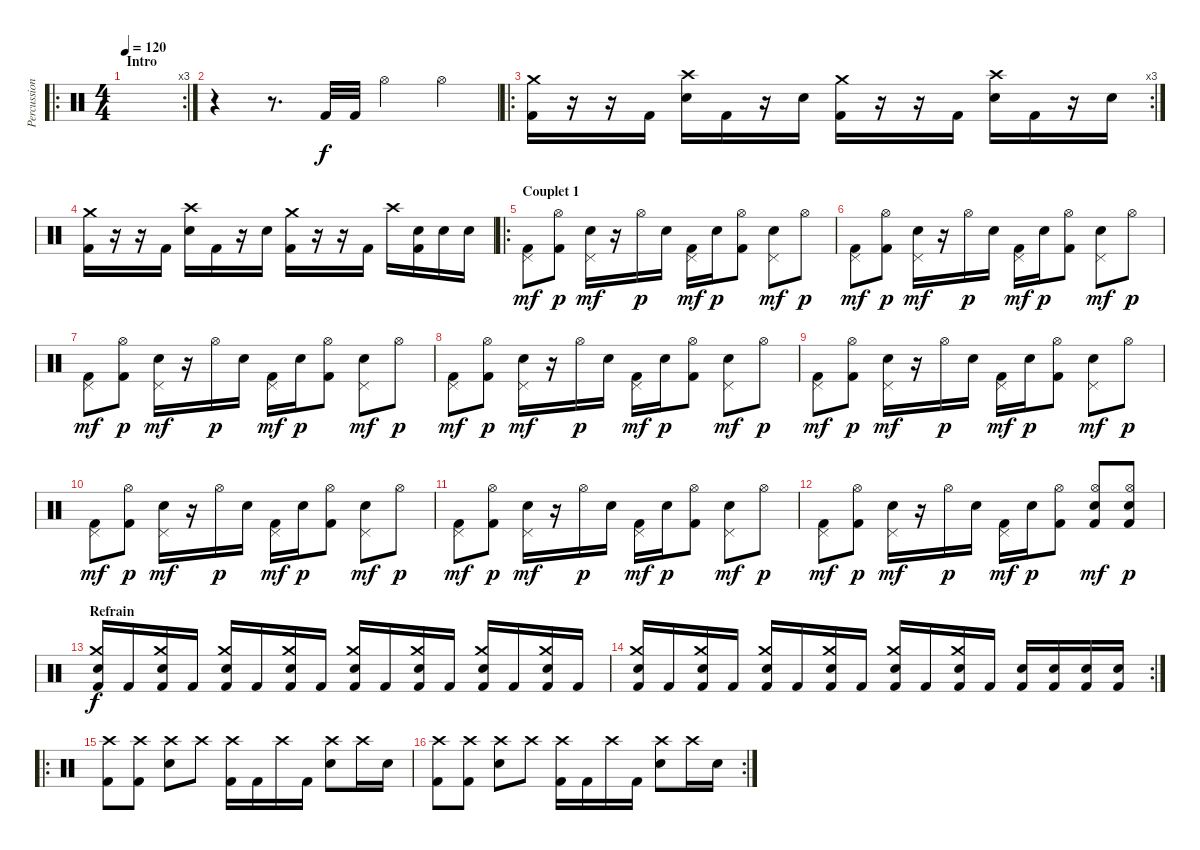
\track ("Percussions" "Percussion") {instrument percussion}
\staff {score}
\articulation defaults
\ro
\rc 3
\ts (4 4)
\section ("" "Intro")
\tempo 120
\clef neutral
\ks c
|
r.4 r.8{d} "Kick (hit) 2".32 "Kick (hit) 2".32 "Hi-Hat (open)".4 "Hi-Hat (open)".4 |
\ro
\rc 3
("Crash medium (hit)" "Kick (hit) 2").16 r.16 r.16 "Kick (hit) 2".16 ("Crash high (hit)" "Electric Snare (hit)").16 "Kick (hit) 2".16 r.16 "Electric Snare (hit)".16 ("Crash medium (hit)" "Kick (hit) 2").16 r.16 r.16 "Kick (hit) 2".16 ("Crash high (hit)" "Electric Snare (hit)").16 "Kick (hit) 2".16 r.16 "Electric Snare (hit)".16 |
("Crash medium (hit)" "Kick (hit) 2").16 r.16 r.16 "Kick (hit) 2".16 ("Crash high (hit)" "Electric Snare (hit)").16 "Kick (hit) 2".16 r.16 "Electric Snare (hit)".16 ("Crash medium (hit)" "Kick (hit) 2").16 r.16 r.16 "Kick (hit) 2".16 "Crash high (hit)".16 ("Electric Snare (hit)" "Kick (hit) 2").16 "Electric Snare (hit)".16 "Electric Snare (hit)".16 |
\ro
\section ("" "Couplet 1")
("Pedal Hi-Hat (hit)" "Kick (hit) 2").8{dy mf} ("Hi-Hat (open)" "Kick (hit) 2").8{dy p} ("Pedal Hi-Hat (hit)" "Electric Snare (hit)").16{dy mf} r.16 "Hi-Hat (open)".16{dy p} "Electric Snare (hit)".16 ("Pedal Hi-Hat (hit)" "Kick (hit) 2").16{dy mf} "Electric Snare (hit)".16{dy p} ("Hi-Hat (open)" "Kick (hit) 2").8 ("Pedal Hi-Hat (hit)" "Electric Snare (hit)").8{dy mf} "Hi-Hat (open)".8{dy p} |
("Pedal Hi-Hat (hit)" "Kick (hit) 2").8{dy mf} ("Hi-Hat (open)" "Kick (hit) 2").8{dy p} ("Pedal Hi-Hat (hit)" "Electric Snare (hit)").16{dy mf} r.16 "Hi-Hat (open)".16{dy p} "Electric Snare (hit)".16 ("Pedal Hi-Hat (hit)" "Kick (hit) 2").16{dy mf} "Electric Snare (hit)".16{dy p} ("Hi-Hat (open)" "Kick (hit) 2").8 ("Pedal Hi-Hat (hit)" "Electric Snare (hit)").8{dy mf} "Hi-Hat (open)".8{dy p} |
("Pedal Hi-Hat (hit)" "Kick (hit) 2").8{dy mf} ("Hi-Hat (open)" "Kick (hit) 2").8{dy p} ("Pedal Hi-Hat (hit)" "Electric Snare (hit)").16{dy mf} r.16 "Hi-Hat (open)".16{dy p} "Electric Snare (hit)".16 ("Pedal Hi-Hat (hit)" "Kick (hit) 2").16{dy mf} "Electric Snare (hit)".16{dy p} ("Hi-Hat (open)" "Kick (hit) 2").8 ("Pedal Hi-Hat (hit)" "Electric Snare (hit)").8{dy mf} "Hi-Hat (open)".8{dy p} |
("Pedal Hi-Hat (hit)" "Kick (hit) 2").8{dy mf} ("Hi-Hat (open)" "Kick (hit) 2").8{dy p} ("Pedal Hi-Hat (hit)" "Electric Snare (hit)").16{dy mf} r.16 "Hi-Hat (open)".16{dy p} "Electric Snare (hit)".16 ("Pedal Hi-Hat (hit)" "Kick (hit) 2").16{dy mf} "Electric Snare (hit)".16{dy p} ("Hi-Hat (open)" "Kick (hit) 2").8 ("Pedal Hi-Hat (hit)" "Electric Snare (hit)").8{dy mf} "Hi-Hat (open)".8{dy p} |
("Pedal Hi-Hat (hit)" "Kick (hit) 2").8{dy mf} ("Hi-Hat (open)" "Kick (hit) 2").8{dy p} ("Pedal Hi-Hat (hit)" "Electric Snare (hit)").16{dy mf} r.16 "Hi-Hat (open)".16{dy p} "Electric Snare (hit)".16 ("Pedal Hi-Hat (hit)" "Kick (hit) 2").16{dy mf} "Electric Snare (hit)".16{dy p} ("Hi-Hat (open)" "Kick (hit) 2").8 ("Pedal Hi-Hat (hit)" "Electric Snare (hit)").8{dy mf} "Hi-Hat (open)".8{dy p} |
("Pedal Hi-Hat (hit)" "Kick (hit) 2").8{dy mf} ("Hi-Hat (open)" "Kick (hit) 2").8{dy p} ("Pedal Hi-Hat (hit)" "Electric Snare (hit)").16{dy mf} r.16 "Hi-Hat (open)".16{dy p} "Electric Snare (hit)".16 ("Pedal Hi-Hat (hit)" "Kick (hit) 2").16{dy mf} "Electric Snare (hit)".16{dy p} ("Hi-Hat (open)" "Kick (hit) 2").8 ("Pedal Hi-Hat (hit)" "Electric Snare (hit)").8{dy mf} "Hi-Hat (open)".8{dy p} |
("Pedal Hi-Hat (hit)" "Kick (hit) 2").8{dy mf} ("Hi-Hat (open)" "Kick (hit) 2").8{dy p} ("Pedal Hi-Hat (hit)" "Electric Snare (hit)").16{dy mf} r.16 "Hi-Hat (open)".16{dy p} "Electric Snare (hit)".16 ("Pedal Hi-Hat (hit)" "Kick (hit) 2").16{dy mf} "Electric Snare (hit)".16{dy p} ("Hi-Hat (open)" "Kick (hit) 2").8 ("Pedal Hi-Hat (hit)" "Electric Snare (hit)").8{dy mf} "Hi-Hat (open)".8{dy p} |
("Pedal Hi-Hat (hit)" "Kick (hit) 2").8{dy mf} ("Hi-Hat (open)" "Kick (hit) 2").8{dy p} ("Pedal Hi-Hat (hit)" "Electric Snare (hit)").16{dy mf} r.16 "Hi-Hat (open)".16{dy p} "Electric Snare (hit)".16 ("Pedal Hi-Hat (hit)" "Kick (hit) 2").16{dy mf} "Electric Snare (hit)".16{dy p} ("Hi-Hat (open)" "Kick (hit) 2").8 ("Hi-Hat (open)" "Electric Snare (hit)" "Kick (hit) 2").8{dy mf} ("Hi-Hat (open)" "Electric Snare (hit)" "Kick (hit) 2").8{dy p} |
\section ("" "Refrain")
("Crash medium (hit)" "Electric Snare (hit)" "Kick (hit) 2").16{dy f} "Kick (hit) 2".16 ("Crash medium (hit)" "Electric Snare (hit)" "Kick (hit) 2").16 "Kick (hit) 2".16 ("Crash medium (hit)" "Electric Snare (hit)" "Kick (hit) 2").16 "Kick (hit) 2".16 ("Crash medium (hit)" "Electric Snare (hit)" "Kick (hit) 2").16 "Kick (hit) 2".16 ("Crash medium (hit)" "Electric Snare (hit)" "Kick (hit) 2").16 "Kick (hit) 2".16 ("Crash medium (hit)" "Electric Snare (hit)" "Kick (hit) 2").16 "Kick (hit) 2".16 ("Crash medium (hit)" "Electric Snare (hit)" "Kick (hit) 2").16 "Kick (hit) 2".16 ("Crash medium (hit)" "Electric Snare (hit)" "Kick (hit) 2").16 "Kick (hit) 2".16 |
\rc 2
("Crash medium (hit)" "Electric Snare (hit)" "Kick (hit) 2").16 "Kick (hit) 2".16 ("Crash medium (hit)" "Electric Snare (hit)" "Kick (hit) 2").16 "Kick (hit) 2".16 ("Crash medium (hit)" "Electric Snare (hit)" "Kick (hit) 2").16 "Kick (hit) 2".16 ("Crash medium (hit)" "Electric Snare (hit)" "Kick (hit) 2").16 "Kick (hit) 2".16 ("Crash medium (hit)" "Electric Snare (hit)" "Kick (hit) 2").16 "Kick (hit) 2".16 ("Crash medium (hit)" "Electric Snare (hit)" "Kick (hit) 2").16 "Kick (hit) 2".16 ("Electric Snare (hit)" "Kick (hit) 2").16 ("Electric Snare (hit)" "Kick (hit) 2").16 ("Electric Snare (hit)" "Kick (hit) 2").16 ("Electric Snare (hit)" "Kick (hit) 2").16 |
\ro
("Crash high (hit)" "Kick (hit) 2").8 ("Crash high (hit)" "Kick (hit) 2").8 ("Crash high (hit)" "Electric Snare (hit)").8 "Crash high (hit)".8 ("Crash high (hit)" "Kick (hit) 2").16 "Kick (hit) 2".16 "Crash high (hit)".16 "Kick (hit) 2".16 ("Crash high (hit)" "Electric Snare (hit)").8 "Crash high (hit)".16 "Electric Snare (hit)".16 |
\rc 2
("Crash high (hit)" "Kick (hit) 2").8 ("Crash high (hit)" "Kick (hit) 2").8 ("Crash high (hit)" "Electric Snare (hit)").8 "Crash high (hit)".8 ("Crash high (hit)" "Kick (hit) 2").16 "Kick (hit) 2".16 "Crash high (hit)".16 "Kick (hit) 2".16 ("Crash high (hit)" "Electric Snare (hit)").8 "Crash high (hit)".16 "Electric Snare (hit)".16
